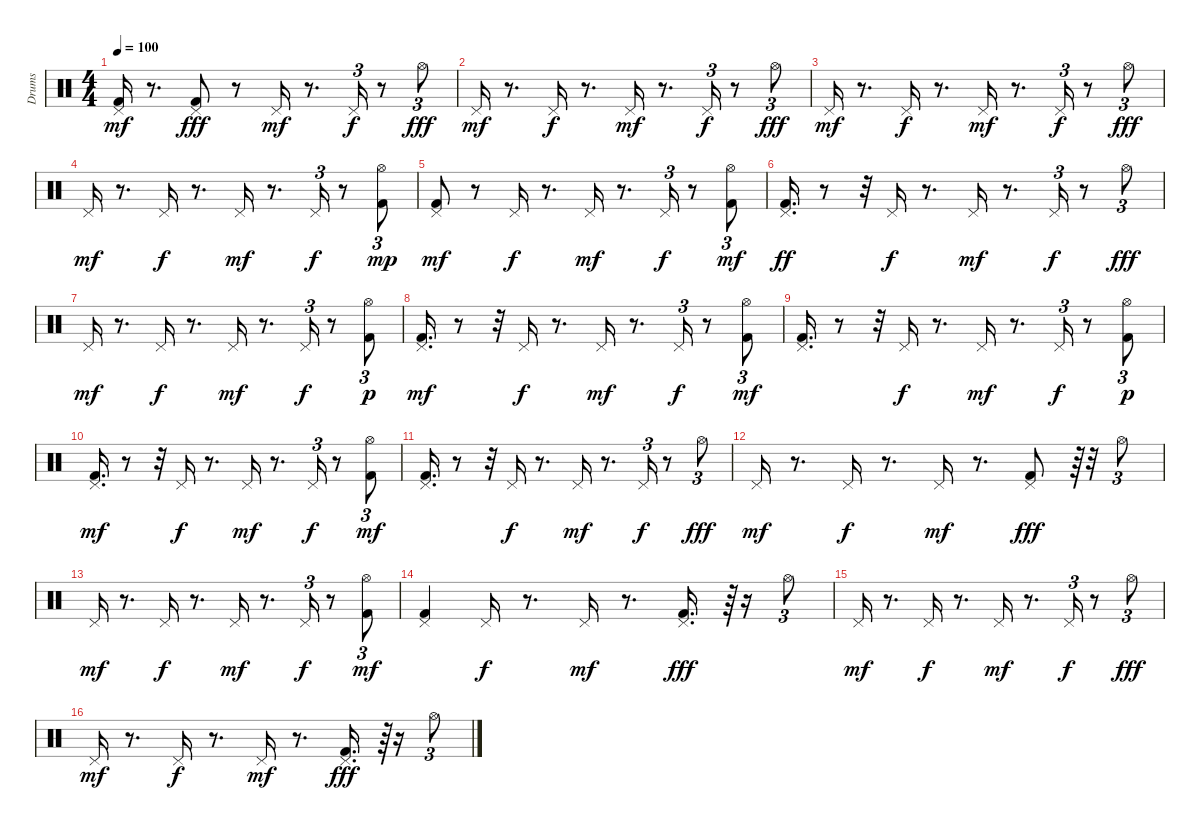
\track ("Drums" "Drums") {instrument percussion}
\staff {score}
\articulation defaults
\ts (4 4)
\tempo 100
\clef neutral
\ks c
("Pedal Hi-Hat (hit)" "Kick (hit) 2").16{dy mf} r.8{d} ("Pedal Hi-Hat (hit)" "Kick (hit) 2").8{dy fff} r.8 "Pedal Hi-Hat (hit)".16{dy mf} r.8{d} "Pedal Hi-Hat (hit)".16{tu (3 2) dy f} r.8 "Hi-Hat (open)".8{tu (3 2) dy fff} |
"Pedal Hi-Hat (hit)".16{dy mf} r.8{d} "Pedal Hi-Hat (hit)".16{dy f} r.8{d} "Pedal Hi-Hat (hit)".16{dy mf} r.8{d} "Pedal Hi-Hat (hit)".16{tu (3 2) dy f} r.8 "Hi-Hat (open)".8{tu (3 2) dy fff} |
"Pedal Hi-Hat (hit)".16{dy mf} r.8{d} "Pedal Hi-Hat (hit)".16{dy f} r.8{d} "Pedal Hi-Hat (hit)".16{dy mf} r.8{d} "Pedal Hi-Hat (hit)".16{tu (3 2) dy f} r.8 "Hi-Hat (open)".8{tu (3 2) dy fff} |
"Pedal Hi-Hat (hit)".16{dy mf} r.8{d} "Pedal Hi-Hat (hit)".16{dy f} r.8{d} "Pedal Hi-Hat (hit)".16{dy mf} r.8{d} "Pedal Hi-Hat (hit)".16{tu (3 2) dy f} r.8 ("Hi-Hat (open)" "Kick (hit) 2").8{tu (3 2) dy mp} |
("Pedal Hi-Hat (hit)" "Kick (hit) 2").8{dy mf} r.8 "Pedal Hi-Hat (hit)".16{dy f} r.8{d} "Pedal Hi-Hat (hit)".16{dy mf} r.8{d} "Pedal Hi-Hat (hit)".16{tu (3 2) dy f} r.8 ("Hi-Hat (open)" "Kick (hit) 2").8{tu (3 2) dy mf} |
("Pedal Hi-Hat (hit)" "Kick (hit) 2").16{d dy ff} r.8 r.32 "Pedal Hi-Hat (hit)".16{dy f} r.8{d} "Pedal Hi-Hat (hit)".16{dy mf} r.8{d} "Pedal Hi-Hat (hit)".16{tu (3 2) dy f} r.8 "Hi-Hat (open)".8{tu (3 2) dy fff} |
"Pedal Hi-Hat (hit)".16{dy mf} r.8{d} "Pedal Hi-Hat (hit)".16{dy f} r.8{d} "Pedal Hi-Hat (hit)".16{dy mf} r.8{d} "Pedal Hi-Hat (hit)".16{tu (3 2) dy f} r.8 ("Hi-Hat (open)" "Kick (hit) 2").8{tu (3 2) dy p} |
("Pedal Hi-Hat (hit)" "Kick (hit) 2").16{d dy mf} r.8 r.32 "Pedal Hi-Hat (hit)".16{dy f} r.8{d} "Pedal Hi-Hat (hit)".16{dy mf} r.8{d} "Pedal Hi-Hat (hit)".16{tu (3 2) dy f} r.8 ("Hi-Hat (open)" "Kick (hit) 2").8{tu (3 2) dy mf} |
("Pedal Hi-Hat (hit)" "Kick (hit) 2").16{d} r.8 r.32 "Pedal Hi-Hat (hit)".16{dy f} r.8{d} "Pedal Hi-Hat (hit)".16{dy mf} r.8{d} "Pedal Hi-Hat (hit)".16{tu (3 2) dy f} r.8 ("Hi-Hat (open)" "Kick (hit) 2").8{tu (3 2) dy p} |
("Pedal Hi-Hat (hit)" "Kick (hit) 2").16{d dy mf} r.8 r.32 "Pedal Hi-Hat (hit)".16{dy f} r.8{d} "Pedal Hi-Hat (hit)".16{dy mf} r.8{d} "Pedal Hi-Hat (hit)".16{tu (3 2) dy f} r.8 ("Hi-Hat (open)" "Kick (hit) 2").8{tu (3 2) dy mf} |
("Pedal Hi-Hat (hit)" "Kick (hit) 2").16{d} r.8 r.32 "Pedal Hi-Hat (hit)".16{dy f} r.8{d} "Pedal Hi-Hat (hit)".16{dy mf} r.8{d} "Pedal Hi-Hat (hit)".16{tu (3 2) dy f} r.8 "Hi-Hat (open)".8{tu (3 2) dy fff} |
"Pedal Hi-Hat (hit)".16{dy mf} r.8{d} "Pedal Hi-Hat (hit)".16{dy f volume 12} r.8{d} "Pedal Hi-Hat (hit)".16{dy mf volume 12} r.8{d} ("Kick (hit) 2" "Pedal Hi-Hat (hit)").8{dy fff volume 11} r.64{tu (3 2)} r.32 "Hi-Hat (open)".8{tu (3 2) volume 11} |
"Pedal Hi-Hat (hit)".16{dy mf} r.8{d} "Pedal Hi-Hat (hit)".16{dy f volume 10} r.8{d} "Pedal Hi-Hat (hit)".16{dy mf volume 10} r.8{d} "Pedal Hi-Hat (hit)".16{tu (3 2) dy f volume 9} r.8 ("Hi-Hat (open)" "Kick (hit) 2").8{tu (3 2) dy mf volume 9} |
("Pedal Hi-Hat (hit)" "Kick (hit) 2").4{volume 8} "Pedal Hi-Hat (hit)".16{dy f volume 8} r.8{d} "Pedal Hi-Hat (hit)".16{dy mf volume 8} r.8{d} ("Pedal Hi-Hat (hit)" "Kick (hit) 2").16{d dy fff volume 7} r.64{tu (3 2)} r.16 "Hi-Hat (open)".8{tu (3 2) volume 7} |
"Pedal Hi-Hat (hit)".16{dy mf volume 6} r.8{d} "Pedal Hi-Hat (hit)".16{dy f volume 6} r.8{d} "Pedal Hi-Hat (hit)".16{dy mf volume 6} r.8{d} "Pedal Hi-Hat (hit)".16{tu (3 2) dy f volume 5} r.8 "Hi-Hat (open)".8{tu (3 2) dy fff volume 5} |
"Pedal Hi-Hat (hit)".16{dy mf} r.8{d} "Pedal Hi-Hat (hit)".16{dy f volume 4} r.8{d} "Pedal Hi-Hat (hit)".16{dy mf volume 4} r.8{d} ("Kick (hit) 2" "Pedal Hi-Hat (hit)").16{d dy fff volume 3} r.64{tu (3 2)} r.16 "Hi-Hat (open)".8{tu (3 2) volume 3}
